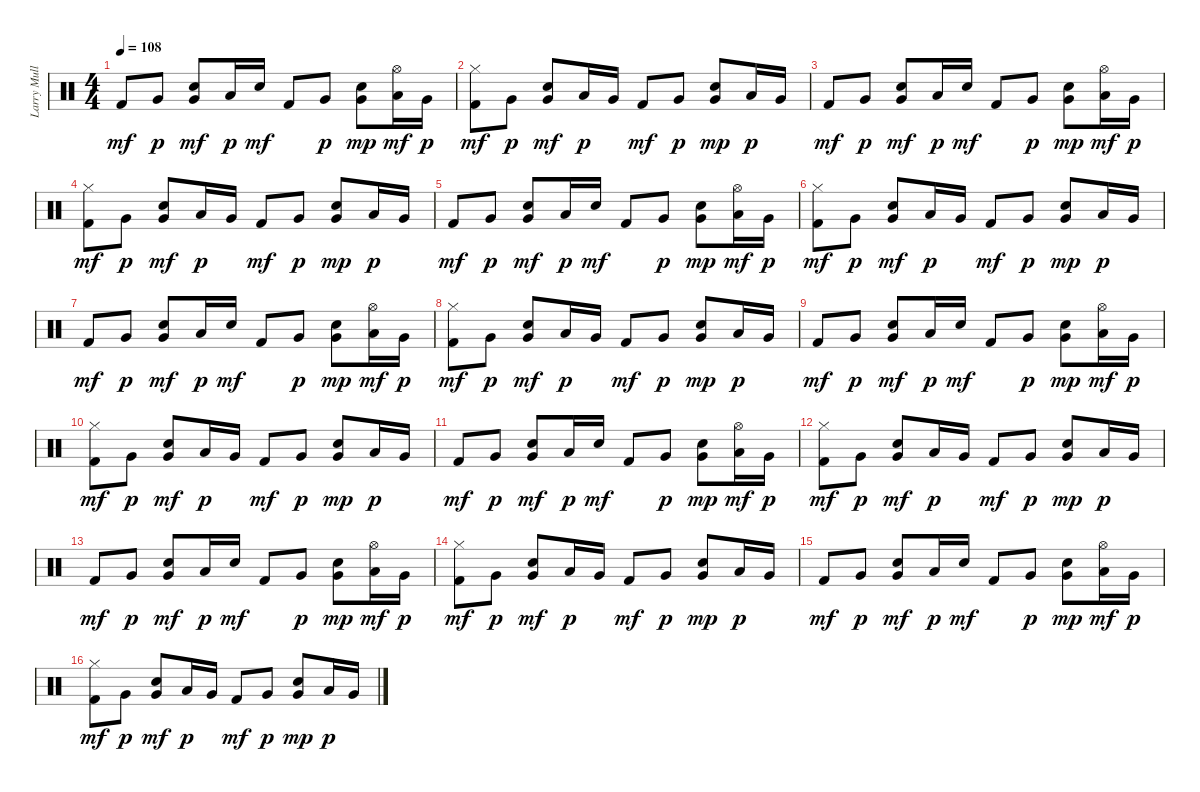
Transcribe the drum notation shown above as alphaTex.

\track ("Larry Mullen Jr." "Larry Mull") {instrument percussion}
\staff {score}
\articulation defaults
\ts (4 4)
\tempo 108
\clef neutral
\ks c "Kick (hit) 2".8{dy mf} "Very Low Tom (hit)".8{dy p}
("Electric Snare (hit)" "Very Low Tom (hit)").8{dy mf} "Low Floor Tom (hit)".16{dy p} "Electric Snare (hit)".16{dy mf} "Kick (hit) 2".8 "Very Low Tom (hit)".8{dy p} ("Electric Snare (hit)" "Very Low Tom (hit)").8{dy mp} ("Low Floor Tom (hit)" "Hi-Hat (open)").16{dy mf} "Very Low Tom (hit)".16{dy p} |
("Kick (hit) 2" "Hi-Hat (closed)").8{dy mf} "Very Low Tom (hit)".8{dy p} ("Electric Snare (hit)" "Very Low Tom (hit)").8{dy mf} "Low Floor Tom (hit)".16{dy p} "Very Low Tom (hit)".16 "Kick (hit) 2".8{dy mf} "Very Low Tom (hit)".8{dy p} ("Electric Snare (hit)" "Very Low Tom (hit)").8{dy mp} "Low Floor Tom (hit)".16{dy p} "Very Low Tom (hit)".16 |
"Kick (hit) 2".8{dy mf} "Very Low Tom (hit)".8{dy p} ("Electric Snare (hit)" "Very Low Tom (hit)").8{dy mf} "Low Floor Tom (hit)".16{dy p} "Electric Snare (hit)".16{dy mf} "Kick (hit) 2".8 "Very Low Tom (hit)".8{dy p} ("Electric Snare (hit)" "Very Low Tom (hit)").8{dy mp} ("Low Floor Tom (hit)" "Hi-Hat (open)").16{dy mf} "Very Low Tom (hit)".16{dy p} |
("Kick (hit) 2" "Hi-Hat (closed)").8{dy mf} "Very Low Tom (hit)".8{dy p} ("Electric Snare (hit)" "Very Low Tom (hit)").8{dy mf} "Low Floor Tom (hit)".16{dy p} "Very Low Tom (hit)".16 "Kick (hit) 2".8{dy mf} "Very Low Tom (hit)".8{dy p} ("Electric Snare (hit)" "Very Low Tom (hit)").8{dy mp} "Low Floor Tom (hit)".16{dy p} "Very Low Tom (hit)".16 |
"Kick (hit) 2".8{dy mf} "Very Low Tom (hit)".8{dy p} ("Electric Snare (hit)" "Very Low Tom (hit)").8{dy mf} "Low Floor Tom (hit)".16{dy p} "Electric Snare (hit)".16{dy mf} "Kick (hit) 2".8 "Very Low Tom (hit)".8{dy p} ("Electric Snare (hit)" "Very Low Tom (hit)").8{dy mp} ("Low Floor Tom (hit)" "Hi-Hat (open)").16{dy mf} "Very Low Tom (hit)".16{dy p} |
("Kick (hit) 2" "Hi-Hat (closed)").8{dy mf} "Very Low Tom (hit)".8{dy p} ("Electric Snare (hit)" "Very Low Tom (hit)").8{dy mf} "Low Floor Tom (hit)".16{dy p} "Very Low Tom (hit)".16 "Kick (hit) 2".8{dy mf} "Very Low Tom (hit)".8{dy p} ("Electric Snare (hit)" "Very Low Tom (hit)").8{dy mp} "Low Floor Tom (hit)".16{dy p} "Very Low Tom (hit)".16 |
"Kick (hit) 2".8{dy mf} "Very Low Tom (hit)".8{dy p} ("Electric Snare (hit)" "Very Low Tom (hit)").8{dy mf} "Low Floor Tom (hit)".16{dy p} "Electric Snare (hit)".16{dy mf} "Kick (hit) 2".8 "Very Low Tom (hit)".8{dy p} ("Electric Snare (hit)" "Very Low Tom (hit)").8{dy mp} ("Low Floor Tom (hit)" "Hi-Hat (open)").16{dy mf} "Very Low Tom (hit)".16{dy p} |
("Kick (hit) 2" "Hi-Hat (closed)").8{dy mf} "Very Low Tom (hit)".8{dy p} ("Electric Snare (hit)" "Very Low Tom (hit)").8{dy mf} "Low Floor Tom (hit)".16{dy p} "Very Low Tom (hit)".16 "Kick (hit) 2".8{dy mf} "Very Low Tom (hit)".8{dy p} ("Electric Snare (hit)" "Very Low Tom (hit)").8{dy mp} "Low Floor Tom (hit)".16{dy p} "Very Low Tom (hit)".16 |
"Kick (hit) 2".8{dy mf} "Very Low Tom (hit)".8{dy p} ("Electric Snare (hit)" "Very Low Tom (hit)").8{dy mf} "Low Floor Tom (hit)".16{dy p} "Electric Snare (hit)".16{dy mf} "Kick (hit) 2".8 "Very Low Tom (hit)".8{dy p} ("Electric Snare (hit)" "Very Low Tom (hit)").8{dy mp} ("Low Floor Tom (hit)" "Hi-Hat (open)").16{dy mf} "Very Low Tom (hit)".16{dy p} |
("Kick (hit) 2" "Hi-Hat (closed)").8{dy mf} "Very Low Tom (hit)".8{dy p} ("Electric Snare (hit)" "Very Low Tom (hit)").8{dy mf} "Low Floor Tom (hit)".16{dy p} "Very Low Tom (hit)".16 "Kick (hit) 2".8{dy mf} "Very Low Tom (hit)".8{dy p} ("Electric Snare (hit)" "Very Low Tom (hit)").8{dy mp} "Low Floor Tom (hit)".16{dy p} "Very Low Tom (hit)".16 |
"Kick (hit) 2".8{dy mf} "Very Low Tom (hit)".8{dy p} ("Electric Snare (hit)" "Very Low Tom (hit)").8{dy mf} "Low Floor Tom (hit)".16{dy p} "Electric Snare (hit)".16{dy mf} "Kick (hit) 2".8 "Very Low Tom (hit)".8{dy p} ("Electric Snare (hit)" "Very Low Tom (hit)").8{dy mp} ("Low Floor Tom (hit)" "Hi-Hat (open)").16{dy mf} "Very Low Tom (hit)".16{dy p} |
("Kick (hit) 2" "Hi-Hat (closed)").8{dy mf} "Very Low Tom (hit)".8{dy p} ("Electric Snare (hit)" "Very Low Tom (hit)").8{dy mf} "Low Floor Tom (hit)".16{dy p} "Very Low Tom (hit)".16 "Kick (hit) 2".8{dy mf} "Very Low Tom (hit)".8{dy p} ("Electric Snare (hit)" "Very Low Tom (hit)").8{dy mp} "Low Floor Tom (hit)".16{dy p} "Very Low Tom (hit)".16 |
"Kick (hit) 2".8{dy mf} "Very Low Tom (hit)".8{dy p} ("Electric Snare (hit)" "Very Low Tom (hit)").8{dy mf} "Low Floor Tom (hit)".16{dy p} "Electric Snare (hit)".16{dy mf} "Kick (hit) 2".8 "Very Low Tom (hit)".8{dy p} ("Electric Snare (hit)" "Very Low Tom (hit)").8{dy mp} ("Low Floor Tom (hit)" "Hi-Hat (open)").16{dy mf} "Very Low Tom (hit)".16{dy p} |
("Kick (hit) 2" "Hi-Hat (closed)").8{dy mf} "Very Low Tom (hit)".8{dy p} ("Electric Snare (hit)" "Very Low Tom (hit)").8{dy mf} "Low Floor Tom (hit)".16{dy p} "Very Low Tom (hit)".16 "Kick (hit) 2".8{dy mf} "Very Low Tom (hit)".8{dy p} ("Electric Snare (hit)" "Very Low Tom (hit)").8{dy mp} "Low Floor Tom (hit)".16{dy p} "Very Low Tom (hit)".16 |
"Kick (hit) 2".8{dy mf} "Very Low Tom (hit)".8{dy p} ("Electric Snare (hit)" "Very Low Tom (hit)").8{dy mf} "Low Floor Tom (hit)".16{dy p} "Electric Snare (hit)".16{dy mf} "Kick (hit) 2".8 "Very Low Tom (hit)".8{dy p} ("Electric Snare (hit)" "Very Low Tom (hit)").8{dy mp} ("Low Floor Tom (hit)" "Hi-Hat (open)").16{dy mf} "Very Low Tom (hit)".16{dy p} |
("Kick (hit) 2" "Hi-Hat (closed)").8{dy mf} "Very Low Tom (hit)".8{dy p} ("Electric Snare (hit)" "Very Low Tom (hit)").8{dy mf} "Low Floor Tom (hit)".16{dy p} "Very Low Tom (hit)".16 "Kick (hit) 2".8{dy mf} "Very Low Tom (hit)".8{dy p} ("Electric Snare (hit)" "Very Low Tom (hit)").8{dy mp} "Low Floor Tom (hit)".16{dy p} "Very Low Tom (hit)".16
